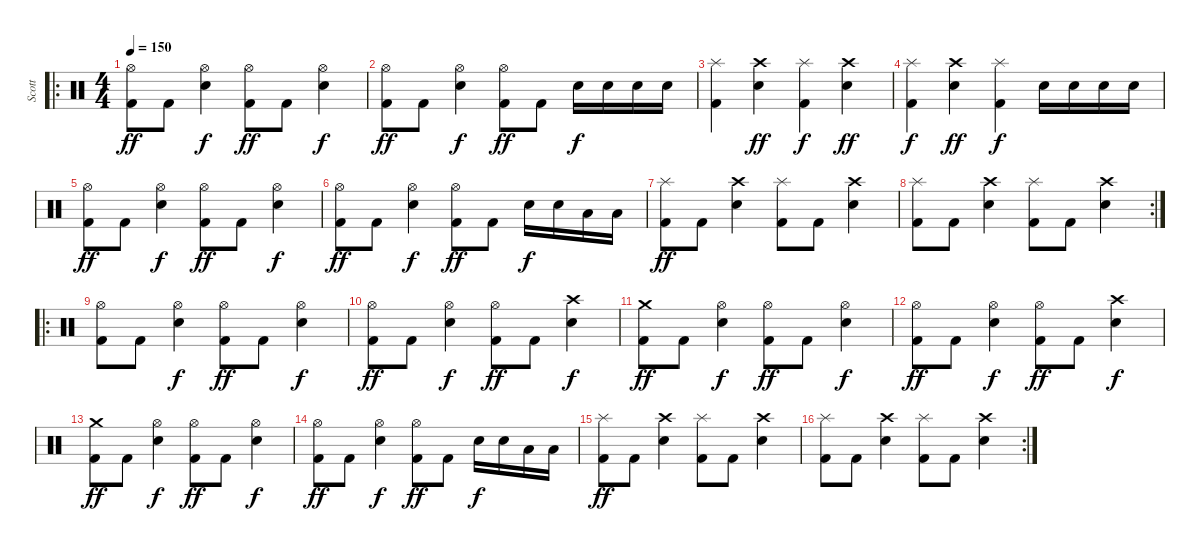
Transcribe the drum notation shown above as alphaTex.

\track ("Scott" "Scott") {solo instrument percussion}
\staff {score}
\articulation defaults
\ro
\ts (4 4)
\tempo 150
\clef neutral
\ks c
("Hi-Hat (open)" "Kick (hit) 2").8{dy ff} "Kick (hit) 2".8 ("Hi-Hat (open)" "Electric Snare (hit)").4{dy f} ("Hi-Hat (open)" "Kick (hit) 2").8{dy ff} "Kick (hit) 2".8 ("Hi-Hat (open)" "Electric Snare (hit)").4{dy f} |
("Hi-Hat (open)" "Kick (hit) 2").8{dy ff} "Kick (hit) 2".8 ("Hi-Hat (open)" "Electric Snare (hit)").4{dy f} ("Hi-Hat (open)" "Kick (hit) 2").8{dy ff} "Kick (hit) 2".8 "Electric Snare (hit)".16{dy f} "Electric Snare (hit)".16 "Electric Snare (hit)".16 "Electric Snare (hit)".16 |
("Splash (hit)" "Kick (hit) 2").4 ("Crash high (hit)" "Electric Snare (hit)").4{dy ff} ("Splash (hit)" "Kick (hit) 2").4{dy f} ("Crash high (hit)" "Electric Snare (hit)").4{dy ff} |
("Splash (hit)" "Kick (hit) 2").4{dy f} ("Crash high (hit)" "Electric Snare (hit)").4{dy ff} ("Splash (hit)" "Kick (hit) 2").4{dy f beam split} "Electric Snare (hit)".16 "Electric Snare (hit)".16{beam merge} "Electric Snare (hit)".16 "Electric Snare (hit)".16 |
("Hi-Hat (open)" "Kick (hit) 2").8{dy ff} "Kick (hit) 2".8 ("Hi-Hat (open)" "Electric Snare (hit)").4{dy f} ("Hi-Hat (open)" "Kick (hit) 2").8{dy ff} "Kick (hit) 2".8 ("Hi-Hat (open)" "Electric Snare (hit)").4{dy f} |
("Hi-Hat (open)" "Kick (hit) 2").8{dy ff} "Kick (hit) 2".8 ("Hi-Hat (open)" "Electric Snare (hit)").4{dy f} ("Hi-Hat (open)" "Kick (hit) 2").8{dy ff} "Kick (hit) 2".8 "Electric Snare (hit)".16{dy f} "Electric Snare (hit)".16 "Low Tom (hit)".16 "Low Tom (hit)".16 |
("Kick (hit) 2" "Splash (hit)").8{dy ff} "Kick (hit) 2".8 ("Crash high (hit)" "Electric Snare (hit)").4 ("Kick (hit) 2" "Splash (hit)").8 "Kick (hit) 2".8 ("Crash high (hit)" "Electric Snare (hit)").4 |
\rc 2
("Kick (hit) 2" "Splash (hit)").8 "Kick (hit) 2".8 ("Crash high (hit)" "Electric Snare (hit)").4 ("Kick (hit) 2" "Splash (hit)").8 "Kick (hit) 2".8 ("Crash high (hit)" "Electric Snare (hit)").4 |
\ro
("Hi-Hat (open)" "Kick (hit) 2").8 "Kick (hit) 2".8 ("Hi-Hat (open)" "Electric Snare (hit)").4{dy f} ("Hi-Hat (open)" "Kick (hit) 2").8{dy ff} "Kick (hit) 2".8 ("Hi-Hat (open)" "Electric Snare (hit)").4{dy f} |
("Hi-Hat (open)" "Kick (hit) 2").8{dy ff} "Kick (hit) 2".8 ("Hi-Hat (open)" "Electric Snare (hit)").4{dy f} ("Kick (hit) 2" "Hi-Hat (open)").8{dy ff} "Kick (hit) 2".8 ("Crash high (hit)" "Electric Snare (hit)").4{dy f} |
("Crash medium (hit)" "Kick (hit) 2").8{dy ff} "Kick (hit) 2".8 ("Hi-Hat (open)" "Electric Snare (hit)").4{dy f} ("Hi-Hat (open)" "Kick (hit) 2").8{dy ff} "Kick (hit) 2".8 ("Hi-Hat (open)" "Electric Snare (hit)").4{dy f} |
("Hi-Hat (open)" "Kick (hit) 2").8{dy ff} "Kick (hit) 2".8 ("Hi-Hat (open)" "Electric Snare (hit)").4{dy f} ("Kick (hit) 2" "Hi-Hat (open)").8{dy ff} "Kick (hit) 2".8 ("Crash high (hit)" "Electric Snare (hit)").4{dy f} |
("Crash medium (hit)" "Kick (hit) 2").8{dy ff} "Kick (hit) 2".8 ("Hi-Hat (open)" "Electric Snare (hit)").4{dy f} ("Hi-Hat (open)" "Kick (hit) 2").8{dy ff} "Kick (hit) 2".8 ("Hi-Hat (open)" "Electric Snare (hit)").4{dy f} |
("Hi-Hat (open)" "Kick (hit) 2").8{dy ff} "Kick (hit) 2".8 ("Hi-Hat (open)" "Electric Snare (hit)").4{dy f} ("Hi-Hat (open)" "Kick (hit) 2").8{dy ff} "Kick (hit) 2".8 "Electric Snare (hit)".16{dy f} "Electric Snare (hit)".16 "Low Tom (hit)".16 "Low Tom (hit)".16 |
("Kick (hit) 2" "Splash (hit)").8{dy ff} "Kick (hit) 2".8 ("Crash high (hit)" "Electric Snare (hit)").4 ("Kick (hit) 2" "Splash (hit)").8 "Kick (hit) 2".8 ("Crash high (hit)" "Electric Snare (hit)").4 |
\rc 2
("Kick (hit) 2" "Splash (hit)").8 "Kick (hit) 2".8 ("Crash high (hit)" "Electric Snare (hit)").4 ("Kick (hit) 2" "Splash (hit)").8 "Kick (hit) 2".8 ("Crash high (hit)" "Electric Snare (hit)").4
